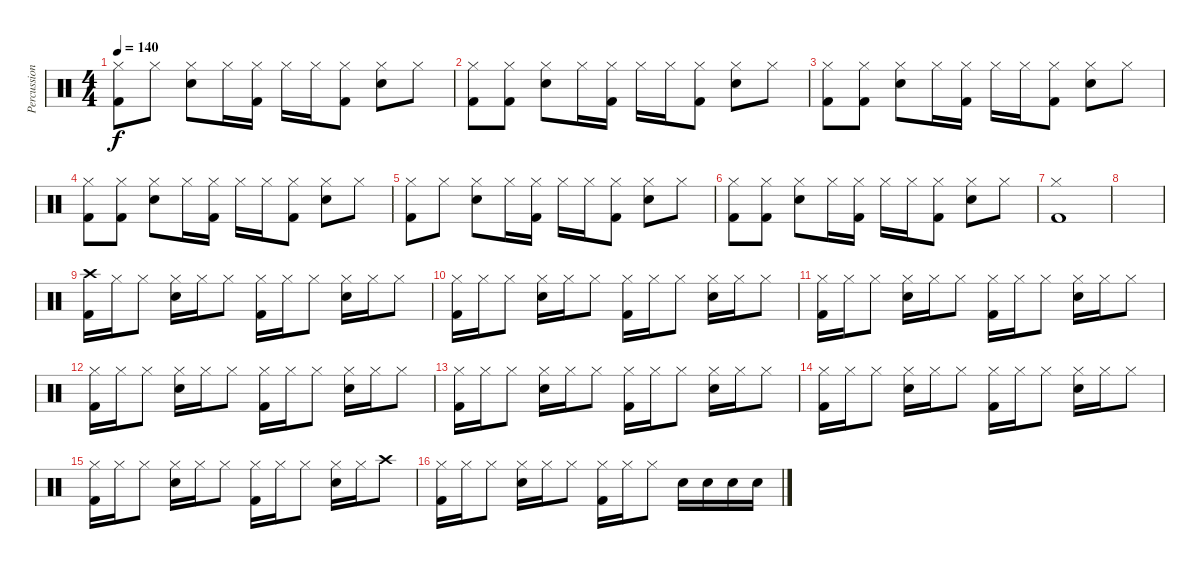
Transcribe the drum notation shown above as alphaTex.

\track ("Percussion" "Percussion") {instrument percussion}
\staff {score}
\articulation defaults
\ts (4 4)
\tempo 140
\clef neutral
\ks c
("Hi-Hat (closed)" "Kick (hit) 2").8{dy f} "Hi-Hat (closed)".8 ("Hi-Hat (closed)" "Snare (hit) 2").8 "Hi-Hat (closed)".16 ("Hi-Hat (closed)" "Kick (hit) 2").16 "Hi-Hat (closed)".16 "Hi-Hat (closed)".16 ("Hi-Hat (closed)" "Kick (hit) 2").8 ("Hi-Hat (closed)" "Snare (hit) 2").8 "Hi-Hat (closed)".8 |
("Hi-Hat (closed)" "Kick (hit) 2").8 ("Hi-Hat (closed)" "Kick (hit) 2").8 ("Hi-Hat (closed)" "Snare (hit) 2").8 "Hi-Hat (closed)".16 ("Hi-Hat (closed)" "Kick (hit) 2").16 "Hi-Hat (closed)".16 "Hi-Hat (closed)".16 ("Hi-Hat (closed)" "Kick (hit) 2").8 ("Hi-Hat (closed)" "Snare (hit) 2").8 "Hi-Hat (closed)".8 |
("Hi-Hat (closed)" "Kick (hit) 2").8 ("Hi-Hat (closed)" "Kick (hit) 2").8 ("Hi-Hat (closed)" "Snare (hit) 2").8 "Hi-Hat (closed)".16 ("Hi-Hat (closed)" "Kick (hit) 2").16 "Hi-Hat (closed)".16 "Hi-Hat (closed)".16 ("Hi-Hat (closed)" "Kick (hit) 2").8 ("Hi-Hat (closed)" "Snare (hit) 2").8 "Hi-Hat (closed)".8 |
("Hi-Hat (closed)" "Kick (hit) 2").8 ("Hi-Hat (closed)" "Kick (hit) 2").8 ("Hi-Hat (closed)" "Snare (hit) 2").8 "Hi-Hat (closed)".16 ("Hi-Hat (closed)" "Kick (hit) 2").16 "Hi-Hat (closed)".16 "Hi-Hat (closed)".16 ("Hi-Hat (closed)" "Kick (hit) 2").8 ("Hi-Hat (closed)" "Snare (hit) 2").8 "Hi-Hat (closed)".8 |
("Hi-Hat (closed)" "Kick (hit) 2").8 "Hi-Hat (closed)".8 ("Hi-Hat (closed)" "Snare (hit) 2").8 "Hi-Hat (closed)".16 ("Hi-Hat (closed)" "Kick (hit) 2").16 "Hi-Hat (closed)".16 "Hi-Hat (closed)".16 ("Hi-Hat (closed)" "Kick (hit) 2").8 ("Hi-Hat (closed)" "Snare (hit) 2").8 "Hi-Hat (closed)".8 |
("Hi-Hat (closed)" "Kick (hit) 2").8 ("Hi-Hat (closed)" "Kick (hit) 2").8 ("Hi-Hat (closed)" "Snare (hit) 2").8 "Hi-Hat (closed)".16 ("Hi-Hat (closed)" "Kick (hit) 2").16 "Hi-Hat (closed)".16 "Hi-Hat (closed)".16 ("Hi-Hat (closed)" "Kick (hit) 2").8 ("Hi-Hat (closed)" "Snare (hit) 2").8 "Hi-Hat (closed)".8 |
("Hi-Hat (closed)" "Kick (hit) 2").1 |
|
("Crash high (hit)" "Kick (hit) 2").16 "Hi-Hat (closed)".16 "Hi-Hat (closed)".8 ("Hi-Hat (closed)" "Electric Snare (hit)").16 "Hi-Hat (closed)".16 "Hi-Hat (closed)".8 ("Hi-Hat (closed)" "Kick (hit) 2").16 "Hi-Hat (closed)".16 "Hi-Hat (closed)".8 ("Hi-Hat (closed)" "Electric Snare (hit)").16 "Hi-Hat (closed)".16 "Hi-Hat (closed)".8 |
("Hi-Hat (closed)" "Kick (hit) 2").16 "Hi-Hat (closed)".16 "Hi-Hat (closed)".8 ("Hi-Hat (closed)" "Electric Snare (hit)").16 "Hi-Hat (closed)".16 "Hi-Hat (closed)".8 ("Hi-Hat (closed)" "Kick (hit) 2").16 "Hi-Hat (closed)".16 "Hi-Hat (closed)".8 ("Hi-Hat (closed)" "Electric Snare (hit)").16 "Hi-Hat (closed)".16 "Hi-Hat (closed)".8 |
("Hi-Hat (closed)" "Kick (hit) 2").16 "Hi-Hat (closed)".16 "Hi-Hat (closed)".8 ("Hi-Hat (closed)" "Electric Snare (hit)").16 "Hi-Hat (closed)".16 "Hi-Hat (closed)".8 ("Hi-Hat (closed)" "Kick (hit) 2").16 "Hi-Hat (closed)".16 "Hi-Hat (closed)".8 ("Hi-Hat (closed)" "Electric Snare (hit)").16 "Hi-Hat (closed)".16 "Hi-Hat (closed)".8 |
("Hi-Hat (closed)" "Kick (hit) 2").16 "Hi-Hat (closed)".16 "Hi-Hat (closed)".8 ("Hi-Hat (closed)" "Electric Snare (hit)").16 "Hi-Hat (closed)".16 "Hi-Hat (closed)".8 ("Hi-Hat (closed)" "Kick (hit) 2").16 "Hi-Hat (closed)".16 "Hi-Hat (closed)".8 ("Hi-Hat (closed)" "Electric Snare (hit)").16 "Hi-Hat (closed)".16 "Hi-Hat (closed)".8 |
("Hi-Hat (closed)" "Kick (hit) 2").16 "Hi-Hat (closed)".16 "Hi-Hat (closed)".8 ("Hi-Hat (closed)" "Electric Snare (hit)").16 "Hi-Hat (closed)".16 "Hi-Hat (closed)".8 ("Hi-Hat (closed)" "Kick (hit) 2").16 "Hi-Hat (closed)".16 "Hi-Hat (closed)".8 ("Hi-Hat (closed)" "Electric Snare (hit)").16 "Hi-Hat (closed)".16 "Hi-Hat (closed)".8 |
("Hi-Hat (closed)" "Kick (hit) 2").16 "Hi-Hat (closed)".16 "Hi-Hat (closed)".8 ("Hi-Hat (closed)" "Electric Snare (hit)").16 "Hi-Hat (closed)".16 "Hi-Hat (closed)".8 ("Hi-Hat (closed)" "Kick (hit) 2").16 "Hi-Hat (closed)".16 "Hi-Hat (closed)".8 ("Hi-Hat (closed)" "Electric Snare (hit)").16 "Hi-Hat (closed)".16 "Hi-Hat (closed)".8 |
("Hi-Hat (closed)" "Kick (hit) 2").16 "Hi-Hat (closed)".16 "Hi-Hat (closed)".8 ("Hi-Hat (closed)" "Electric Snare (hit)").16 "Hi-Hat (closed)".16 "Hi-Hat (closed)".8 ("Hi-Hat (closed)" "Kick (hit) 2").16 "Hi-Hat (closed)".16 "Hi-Hat (closed)".8 ("Hi-Hat (closed)" "Electric Snare (hit)").16 "Hi-Hat (closed)".16 "Crash high (hit)".8 |
("Hi-Hat (closed)" "Kick (hit) 2").16 "Hi-Hat (closed)".16 "Hi-Hat (closed)".8 ("Hi-Hat (closed)" "Electric Snare (hit)").16 "Hi-Hat (closed)".16 "Hi-Hat (closed)".8 ("Hi-Hat (closed)" "Kick (hit) 2").16 "Hi-Hat (closed)".16 "Hi-Hat (closed)".8 "Electric Snare (hit)".16 "Electric Snare (hit)".16 "Electric Snare (hit)".16 "Electric Snare (hit)".16
